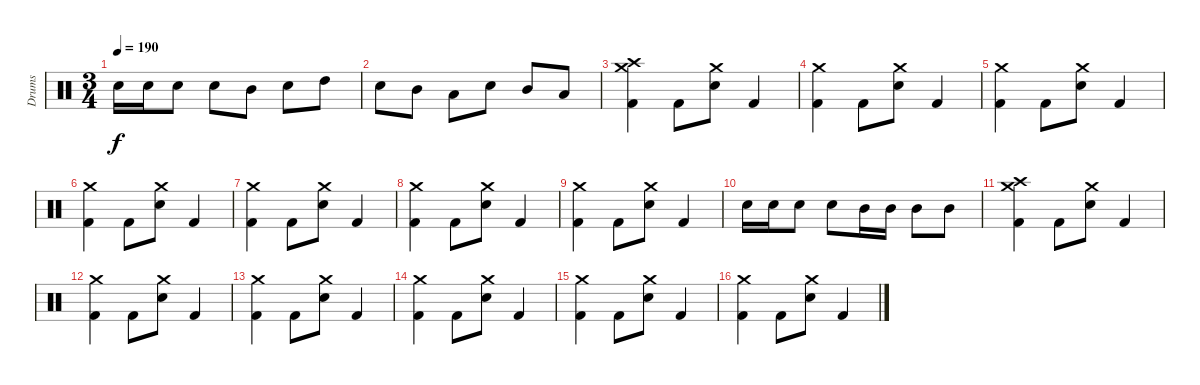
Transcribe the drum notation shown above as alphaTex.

\track ("Drums" "Drums") {instrument percussion}
\staff {score}
\articulation defaults
\ts (3 4)
\tempo 190
\clef neutral
\ks c "Electric Snare (hit)".16{dy f} "Electric Snare (hit)".16 "Electric Snare (hit)".8 "Electric Snare (hit)".8 "Mid Tom (hit)".8 "Electric Snare (hit)".8 "High Tom (hit)".8
|
"Electric Snare (hit)".8 "Mid Tom (hit)".8 "Low Tom (hit)".8 "Electric Snare (hit)".8 "Mid Tom (hit)".8 "Low Tom (hit)".8 |
("Crash medium (hit)" "Crash high (hit)" "Kick (hit) 2").4 "Kick (hit) 2".8 ("Crash medium (hit)" "Electric Snare (hit)").8 "Kick (hit) 2".4 |
("Crash medium (hit)" "Kick (hit) 2").4 "Kick (hit) 2".8 ("Crash medium (hit)" "Electric Snare (hit)").8 "Kick (hit) 2".4 |
("Crash medium (hit)" "Kick (hit) 2").4 "Kick (hit) 2".8 ("Crash medium (hit)" "Electric Snare (hit)").8 "Kick (hit) 2".4 |
("Crash medium (hit)" "Kick (hit) 2").4 "Kick (hit) 2".8 ("Crash medium (hit)" "Electric Snare (hit)").8 "Kick (hit) 2".4 |
("Crash medium (hit)" "Kick (hit) 2").4 "Kick (hit) 2".8 ("Crash medium (hit)" "Electric Snare (hit)").8 "Kick (hit) 2".4 |
("Crash medium (hit)" "Kick (hit) 2").4 "Kick (hit) 2".8 ("Crash medium (hit)" "Electric Snare (hit)").8 "Kick (hit) 2".4 |
("Crash medium (hit)" "Kick (hit) 2").4 "Kick (hit) 2".8 ("Crash medium (hit)" "Electric Snare (hit)").8 "Kick (hit) 2".4 |
"Electric Snare (hit)".16 "Electric Snare (hit)".16 "Electric Snare (hit)".8 "Electric Snare (hit)".8 "Mid Tom (hit)".16 "Mid Tom (hit)".16 "Mid Tom (hit)".8 "Mid Tom (hit)".8 |
("Crash medium (hit)" "Crash high (hit)" "Kick (hit) 2").4 "Kick (hit) 2".8 ("Crash medium (hit)" "Electric Snare (hit)").8 "Kick (hit) 2".4 |
("Crash medium (hit)" "Kick (hit) 2").4 "Kick (hit) 2".8 ("Crash medium (hit)" "Electric Snare (hit)").8 "Kick (hit) 2".4 |
("Crash medium (hit)" "Kick (hit) 2").4 "Kick (hit) 2".8 ("Crash medium (hit)" "Electric Snare (hit)").8 "Kick (hit) 2".4 |
("Crash medium (hit)" "Kick (hit) 2").4 "Kick (hit) 2".8 ("Crash medium (hit)" "Electric Snare (hit)").8 "Kick (hit) 2".4 |
("Crash medium (hit)" "Kick (hit) 2").4 "Kick (hit) 2".8 ("Crash medium (hit)" "Electric Snare (hit)").8 "Kick (hit) 2".4 |
("Crash medium (hit)" "Kick (hit) 2").4 "Kick (hit) 2".8 ("Crash medium (hit)" "Electric Snare (hit)").8 "Kick (hit) 2".4
